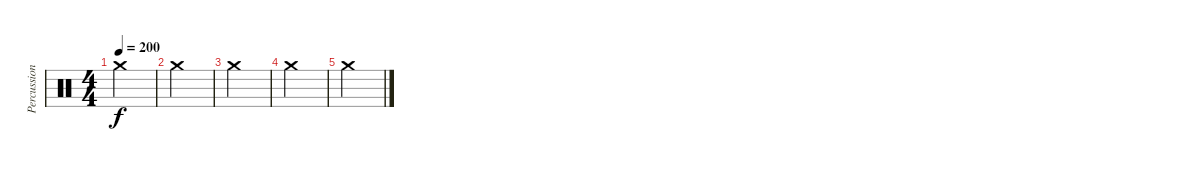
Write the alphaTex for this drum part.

\track ("Percussion" "Percussion") {instrument percussion}
\staff {score}
\articulation defaults
\ts (4 4)
\tempo 200
\clef neutral
\ks c "Crash medium (hit)".4{dy f}
|
"Crash medium (hit)".4 |
"Crash medium (hit)".4 |
"Crash medium (hit)".4 |
"Crash medium (hit)".4
